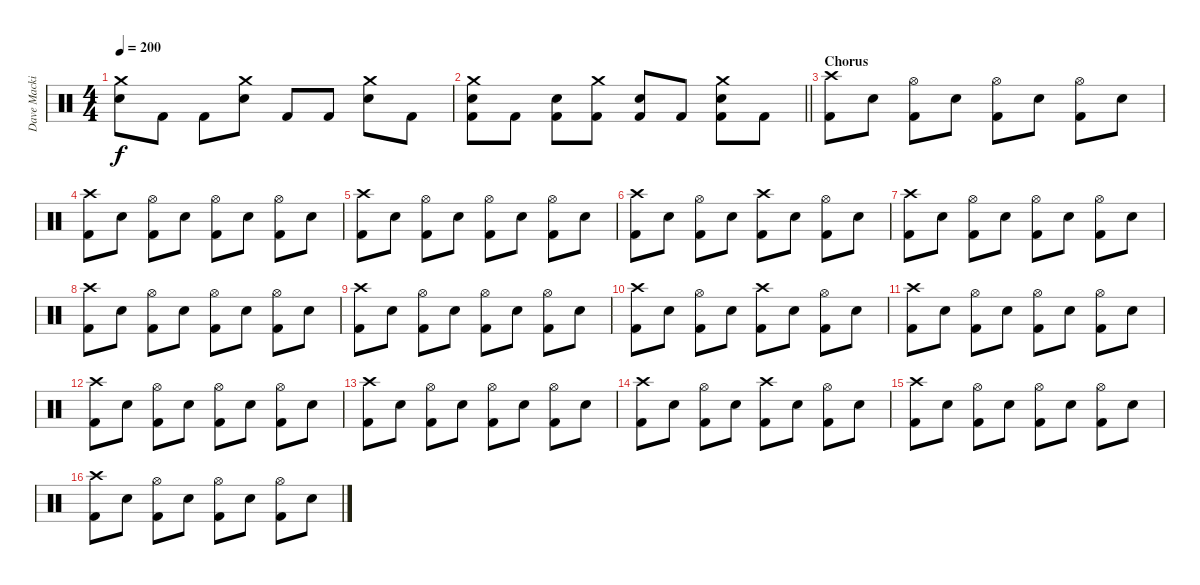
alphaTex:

\track ("Dave Mackintosh | Drums" "Dave Macki") {instrument percussion}
\staff {score}
\articulation defaults
\ts (4 4)
\tempo 200
\clef neutral
\ks c
("Crash medium (hit)" "Snare (hit) 2").8{dy f} "Kick (hit) 2".8 "Kick (hit) 2".8 ("Crash medium (hit)" "Snare (hit) 2").8 "Kick (hit) 2".8 "Kick (hit) 2".8 ("Crash medium (hit)" "Snare (hit) 2").8 "Kick (hit) 2".8 |
\barLineRight lightlight
("Crash medium (hit)" "Snare (hit) 2" "Kick (hit) 2").8 "Kick (hit) 2".8 ("Snare (hit) 2" "Kick (hit) 2").8 ("Crash medium (hit)" "Kick (hit) 2").8 ("Snare (hit) 2" "Kick (hit) 2").8 "Kick (hit) 2".8 ("Crash medium (hit)" "Snare (hit) 2" "Kick (hit) 2").8 "Kick (hit) 2".8 |
\section ("" "Chorus")
("Crash high (hit)" "Kick (hit) 2").8 "Snare (hit) 2".8 ("Hi-Hat (open)" "Kick (hit) 2").8 "Snare (hit) 2".8 ("Hi-Hat (open)" "Kick (hit) 2").8 "Snare (hit) 2".8 ("Hi-Hat (open)" "Kick (hit) 2").8 "Snare (hit) 2".8 |
("Crash high (hit)" "Kick (hit) 2").8 "Snare (hit) 2".8 ("Hi-Hat (open)" "Kick (hit) 2").8 "Snare (hit) 2".8 ("Hi-Hat (open)" "Kick (hit) 2").8 "Snare (hit) 2".8 ("Hi-Hat (open)" "Kick (hit) 2").8 "Snare (hit) 2".8 |
("Crash high (hit)" "Kick (hit) 2").8 "Snare (hit) 2".8 ("Hi-Hat (open)" "Kick (hit) 2").8 "Snare (hit) 2".8 ("Hi-Hat (open)" "Kick (hit) 2").8 "Snare (hit) 2".8 ("Hi-Hat (open)" "Kick (hit) 2").8 "Snare (hit) 2".8 |
("Crash high (hit)" "Kick (hit) 2").8 "Snare (hit) 2".8 ("Hi-Hat (open)" "Kick (hit) 2").8 "Snare (hit) 2".8 ("Crash high (hit)" "Kick (hit) 2").8 "Snare (hit) 2".8 ("Hi-Hat (open)" "Kick (hit) 2").8 "Snare (hit) 2".8 |
("Crash high (hit)" "Kick (hit) 2").8 "Snare (hit) 2".8 ("Hi-Hat (open)" "Kick (hit) 2").8 "Snare (hit) 2".8 ("Hi-Hat (open)" "Kick (hit) 2").8 "Snare (hit) 2".8 ("Hi-Hat (open)" "Kick (hit) 2").8 "Snare (hit) 2".8 |
("Crash high (hit)" "Kick (hit) 2").8 "Snare (hit) 2".8 ("Hi-Hat (open)" "Kick (hit) 2").8 "Snare (hit) 2".8 ("Hi-Hat (open)" "Kick (hit) 2").8 "Snare (hit) 2".8 ("Hi-Hat (open)" "Kick (hit) 2").8 "Snare (hit) 2".8 |
("Crash high (hit)" "Kick (hit) 2").8 "Snare (hit) 2".8 ("Hi-Hat (open)" "Kick (hit) 2").8 "Snare (hit) 2".8 ("Hi-Hat (open)" "Kick (hit) 2").8 "Snare (hit) 2".8 ("Hi-Hat (open)" "Kick (hit) 2").8 "Snare (hit) 2".8 |
("Crash high (hit)" "Kick (hit) 2").8 "Snare (hit) 2".8 ("Hi-Hat (open)" "Kick (hit) 2").8 "Snare (hit) 2".8 ("Crash high (hit)" "Kick (hit) 2").8 "Snare (hit) 2".8 ("Hi-Hat (open)" "Kick (hit) 2").8 "Snare (hit) 2".8 |
("Crash high (hit)" "Kick (hit) 2").8 "Snare (hit) 2".8 ("Hi-Hat (open)" "Kick (hit) 2").8 "Snare (hit) 2".8 ("Hi-Hat (open)" "Kick (hit) 2").8 "Snare (hit) 2".8 ("Hi-Hat (open)" "Kick (hit) 2").8 "Snare (hit) 2".8 |
("Crash high (hit)" "Kick (hit) 2").8 "Snare (hit) 2".8 ("Hi-Hat (open)" "Kick (hit) 2").8 "Snare (hit) 2".8 ("Hi-Hat (open)" "Kick (hit) 2").8 "Snare (hit) 2".8 ("Hi-Hat (open)" "Kick (hit) 2").8 "Snare (hit) 2".8 |
("Crash high (hit)" "Kick (hit) 2").8 "Snare (hit) 2".8 ("Hi-Hat (open)" "Kick (hit) 2").8 "Snare (hit) 2".8 ("Hi-Hat (open)" "Kick (hit) 2").8 "Snare (hit) 2".8 ("Hi-Hat (open)" "Kick (hit) 2").8 "Snare (hit) 2".8 |
("Crash high (hit)" "Kick (hit) 2").8 "Snare (hit) 2".8 ("Hi-Hat (open)" "Kick (hit) 2").8 "Snare (hit) 2".8 ("Crash high (hit)" "Kick (hit) 2").8 "Snare (hit) 2".8 ("Hi-Hat (open)" "Kick (hit) 2").8 "Snare (hit) 2".8 |
("Crash high (hit)" "Kick (hit) 2").8 "Snare (hit) 2".8 ("Hi-Hat (open)" "Kick (hit) 2").8 "Snare (hit) 2".8 ("Hi-Hat (open)" "Kick (hit) 2").8 "Snare (hit) 2".8 ("Hi-Hat (open)" "Kick (hit) 2").8 "Snare (hit) 2".8 |
("Crash high (hit)" "Kick (hit) 2").8 "Snare (hit) 2".8 ("Hi-Hat (open)" "Kick (hit) 2").8 "Snare (hit) 2".8 ("Hi-Hat (open)" "Kick (hit) 2").8 "Snare (hit) 2".8 ("Hi-Hat (open)" "Kick (hit) 2").8 "Snare (hit) 2".8
